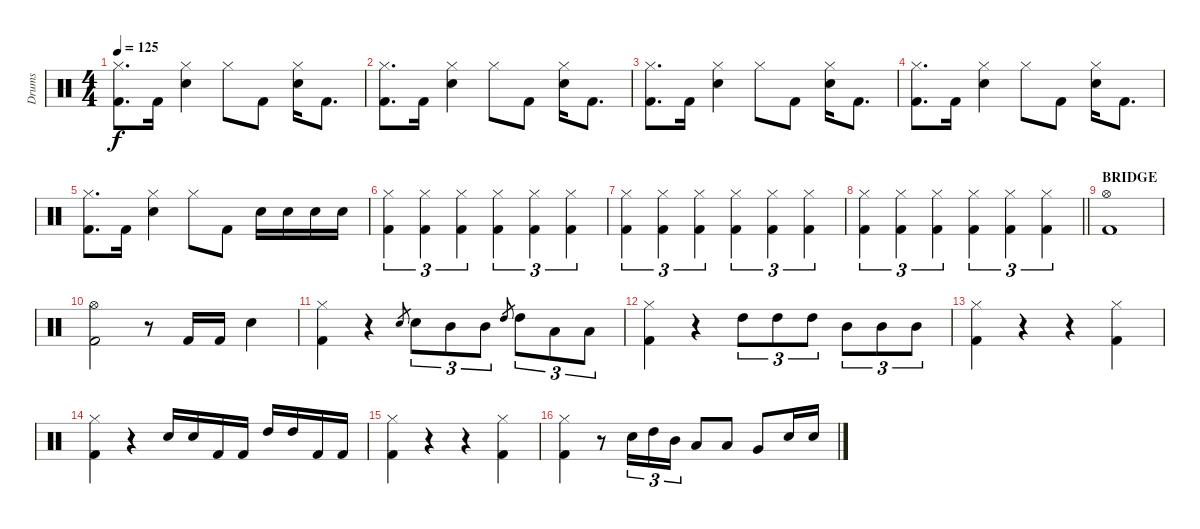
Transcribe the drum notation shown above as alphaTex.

\track ("Drums" "Drums") {instrument percussion}
\staff {score}
\articulation defaults
\ts (4 4)
\tempo 125
\clef neutral
\ks aminor
("Hi-Hat (closed)" "Kick (hit) 2").8{d dy f} "Kick (hit) 2".16 ("Hi-Hat (closed)" "Electric Snare (hit)").4 "Hi-Hat (closed)".8 "Kick (hit) 2".8 ("Hi-Hat (closed)" "Electric Snare (hit)").16 "Kick (hit) 2".8{d} |
("Hi-Hat (closed)" "Kick (hit) 2").8{d} "Kick (hit) 2".16 ("Hi-Hat (closed)" "Electric Snare (hit)").4 "Hi-Hat (closed)".8 "Kick (hit) 2".8 ("Hi-Hat (closed)" "Electric Snare (hit)").16 "Kick (hit) 2".8{d} |
("Hi-Hat (closed)" "Kick (hit) 2").8{d} "Kick (hit) 2".16 ("Hi-Hat (closed)" "Electric Snare (hit)").4 "Hi-Hat (closed)".8 "Kick (hit) 2".8 ("Hi-Hat (closed)" "Electric Snare (hit)").16 "Kick (hit) 2".8{d} |
("Hi-Hat (closed)" "Kick (hit) 2").8{d} "Kick (hit) 2".16 ("Hi-Hat (closed)" "Electric Snare (hit)").4 "Hi-Hat (closed)".8 "Kick (hit) 2".8 ("Hi-Hat (closed)" "Electric Snare (hit)").16 "Kick (hit) 2".8{d} |
("Hi-Hat (closed)" "Kick (hit) 2").8{d} "Kick (hit) 2".16 ("Hi-Hat (closed)" "Electric Snare (hit)").4 "Hi-Hat (closed)".8 "Kick (hit) 2".8 "Electric Snare (hit)".16 "Snare (hit)".16 "Snare (hit)".16 "Snare (hit)".16 |
("Hi-Hat (closed)" "Kick (hit) 2").4{tu (3 2)} ("Hi-Hat (closed)" "Kick (hit) 2").4{tu (3 2)} ("Hi-Hat (closed)" "Kick (hit) 2").4{tu (3 2)} ("Hi-Hat (closed)" "Kick (hit) 2").4{tu (3 2)} ("Hi-Hat (closed)" "Kick (hit) 2").4{tu (3 2)} ("Hi-Hat (closed)" "Kick (hit) 2").4{tu (3 2)} |
("Hi-Hat (closed)" "Kick (hit) 2").4{tu (3 2)} ("Hi-Hat (closed)" "Kick (hit) 2").4{tu (3 2)} ("Hi-Hat (closed)" "Kick (hit) 2").4{tu (3 2)} ("Hi-Hat (closed)" "Kick (hit) 2").4{tu (3 2)} ("Hi-Hat (closed)" "Kick (hit) 2").4{tu (3 2)} ("Hi-Hat (closed)" "Kick (hit) 2").4{tu (3 2)} |
\barLineRight lightlight
("Hi-Hat (closed)" "Kick (hit) 2").4{tu (3 2)} ("Hi-Hat (closed)" "Kick (hit) 2").4{tu (3 2)} ("Hi-Hat (closed)" "Kick (hit) 2").4{tu (3 2)} ("Hi-Hat (closed)" "Kick (hit) 2").4{tu (3 2)} ("Hi-Hat (closed)" "Kick (hit) 2").4{tu (3 2)} ("Hi-Hat (closed)" "Kick (hit) 2").4{tu (3 2)} |
\section ("" "BRIDGE")
("Hi-Hat (open)" "Kick (hit) 2").1 |
("Hi-Hat (open)" "Kick (hit) 2").2 r.8 "Kick (hit) 2".16 "Kick (hit) 2".16 "Electric Snare (hit)".4 |
("Hi-Hat (closed)" "Kick (hit) 2").4 r.4 "Electric Snare (hit)".8{gr} "Electric Snare (hit)".8{tu (3 2)} "Mid Tom (hit)".8{tu (3 2)} "Mid Tom (hit)".8{tu (3 2)} "High Tom (hit)".8{gr} "High Tom (hit)".8{tu (3 2)} "Low Tom (hit)".8{tu (3 2)} "Low Tom (hit)".8{tu (3 2)} |
("Hi-Hat (closed)" "Kick (hit) 2").4 r.4 "High Tom (hit)".8{tu (3 2)} "High Tom (hit)".8{tu (3 2)} "High Tom (hit)".8{tu (3 2)} "Mid Tom (hit)".8{tu (3 2)} "Mid Tom (hit)".8{tu (3 2)} "Mid Tom (hit)".8{tu (3 2)} |
("Hi-Hat (closed)" "Kick (hit) 2").4 r.4 r.4 ("Hi-Hat (closed)" "Kick (hit) 2").4 |
("Hi-Hat (closed)" "Kick (hit) 2").4 r.4 "Electric Snare (hit)".16 "Electric Snare (hit)".16 "Kick (hit) 2".16 "Kick (hit) 2".16 "High Tom (hit)".16 "High Tom (hit)".16 "Kick (hit) 2".16 "Kick (hit) 2".16 |
("Hi-Hat (closed)" "Kick (hit) 2").4 r.4 r.4 ("Hi-Hat (closed)" "Kick (hit) 2").4 |
("Hi-Hat (closed)" "Kick (hit) 2").4 r.8 "Electric Snare (hit)".16{tu (3 2)} "High Tom (hit)".16{tu (3 2)} "Mid Tom (hit)".16{tu (3 2)} "Low Tom (hit)".8 "Low Tom (hit)".8 "Very Low Tom (hit)".8 "Electric Snare (hit)".16 "Electric Snare (hit)".16
